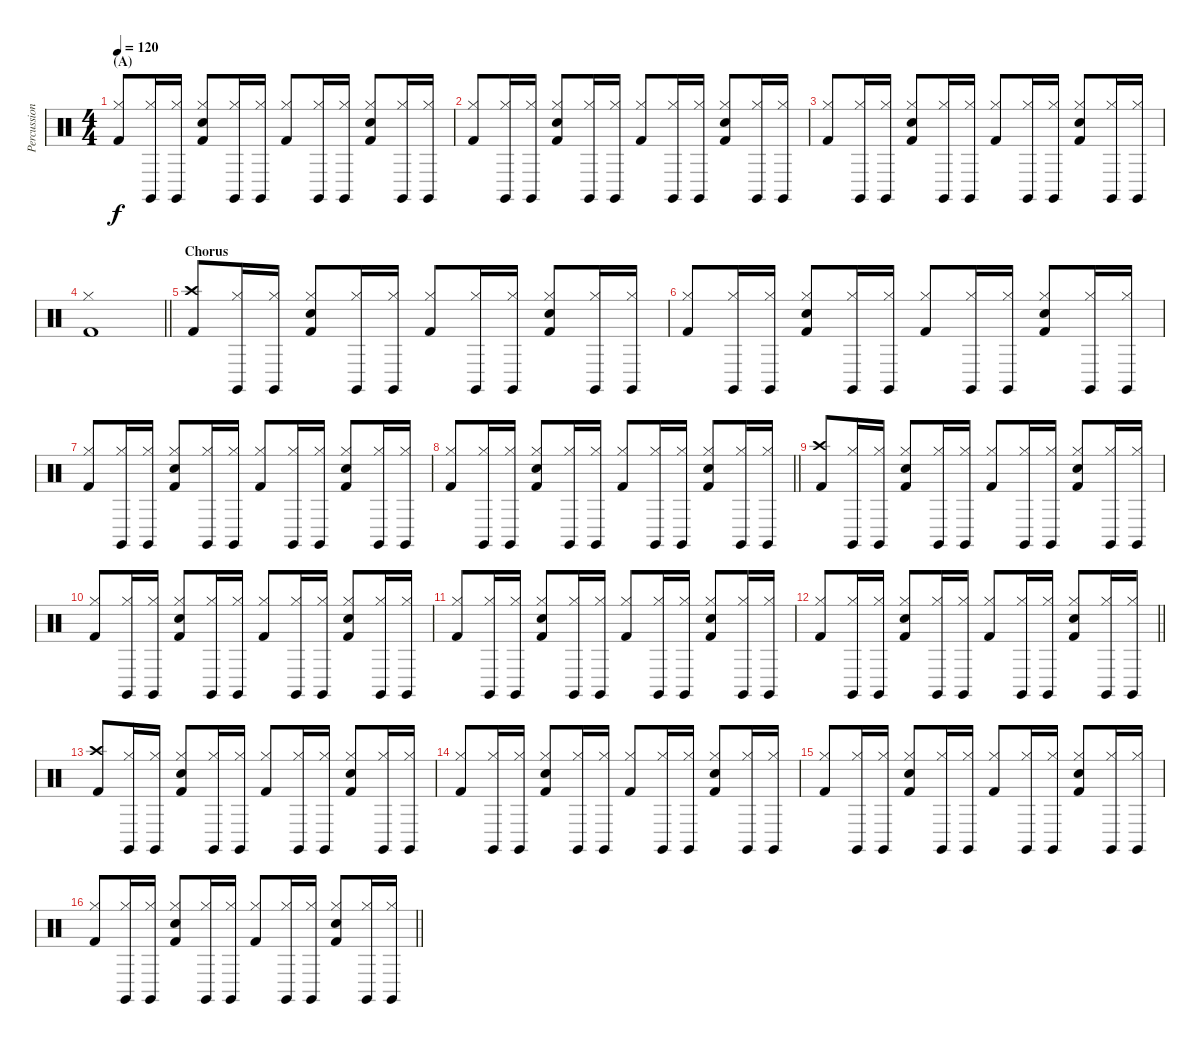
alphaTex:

\track ("Percussion" "Percussion") {instrument percussion}
\staff {score}
\articulation defaults
\ts (4 4)
\section ("" "(A)")
\tempo 120
\clef neutral
\ks c
("Hi-Hat (closed)" "Kick (hit) 2").8{dy f} ("Hi-Hat (closed)" "Claves (hit)").16 ("Hi-Hat (closed)" "Claves (hit)").16 ("Hi-Hat (closed)" "Electric Snare (hit)" "Kick (hit) 2").8 ("Hi-Hat (closed)" "Claves (hit)").16 ("Hi-Hat (closed)" "Claves (hit)").16 ("Hi-Hat (closed)" "Kick (hit) 2").8 ("Hi-Hat (closed)" "Claves (hit)").16 ("Hi-Hat (closed)" "Claves (hit)").16 ("Hi-Hat (closed)" "Electric Snare (hit)" "Kick (hit) 2").8 ("Hi-Hat (closed)" "Claves (hit)").16 ("Hi-Hat (closed)" "Claves (hit)").16 |
("Hi-Hat (closed)" "Kick (hit) 2").8 ("Hi-Hat (closed)" "Claves (hit)").16 ("Hi-Hat (closed)" "Claves (hit)").16 ("Hi-Hat (closed)" "Electric Snare (hit)" "Kick (hit) 2").8 ("Hi-Hat (closed)" "Claves (hit)").16 ("Hi-Hat (closed)" "Claves (hit)").16 ("Hi-Hat (closed)" "Kick (hit) 2").8 ("Hi-Hat (closed)" "Claves (hit)").16 ("Hi-Hat (closed)" "Claves (hit)").16 ("Hi-Hat (closed)" "Electric Snare (hit)" "Kick (hit) 2").8 ("Hi-Hat (closed)" "Claves (hit)").16 ("Hi-Hat (closed)" "Claves (hit)").16 |
("Hi-Hat (closed)" "Kick (hit) 2").8 ("Hi-Hat (closed)" "Claves (hit)").16 ("Hi-Hat (closed)" "Claves (hit)").16 ("Hi-Hat (closed)" "Electric Snare (hit)" "Kick (hit) 2").8 ("Hi-Hat (closed)" "Claves (hit)").16 ("Hi-Hat (closed)" "Claves (hit)").16 ("Hi-Hat (closed)" "Kick (hit) 2").8 ("Hi-Hat (closed)" "Claves (hit)").16 ("Hi-Hat (closed)" "Claves (hit)").16 ("Hi-Hat (closed)" "Electric Snare (hit)" "Kick (hit) 2").8 ("Hi-Hat (closed)" "Claves (hit)").16 ("Hi-Hat (closed)" "Claves (hit)").16 |
\barLineRight lightlight
("Hi-Hat (closed)" "Kick (hit) 2").1 |
\section ("" "Chorus")
("Crash high (hit)" "Kick (hit) 2").8 ("Hi-Hat (closed)" "Claves (hit)").16 ("Hi-Hat (closed)" "Claves (hit)").16 ("Hi-Hat (closed)" "Electric Snare (hit)" "Kick (hit) 2").8 ("Hi-Hat (closed)" "Claves (hit)").16 ("Hi-Hat (closed)" "Claves (hit)").16 ("Hi-Hat (closed)" "Kick (hit) 2").8 ("Hi-Hat (closed)" "Claves (hit)").16 ("Hi-Hat (closed)" "Claves (hit)").16 ("Hi-Hat (closed)" "Electric Snare (hit)" "Kick (hit) 2").8 ("Hi-Hat (closed)" "Claves (hit)").16 ("Hi-Hat (closed)" "Claves (hit)").16 |
("Hi-Hat (closed)" "Kick (hit) 2").8 ("Hi-Hat (closed)" "Claves (hit)").16 ("Hi-Hat (closed)" "Claves (hit)").16 ("Hi-Hat (closed)" "Electric Snare (hit)" "Kick (hit) 2").8 ("Hi-Hat (closed)" "Claves (hit)").16 ("Hi-Hat (closed)" "Claves (hit)").16 ("Hi-Hat (closed)" "Kick (hit) 2").8 ("Hi-Hat (closed)" "Claves (hit)").16 ("Hi-Hat (closed)" "Claves (hit)").16 ("Hi-Hat (closed)" "Electric Snare (hit)" "Kick (hit) 2").8 ("Hi-Hat (closed)" "Claves (hit)").16 ("Hi-Hat (closed)" "Claves (hit)").16 |
("Hi-Hat (closed)" "Kick (hit) 2").8 ("Hi-Hat (closed)" "Claves (hit)").16 ("Hi-Hat (closed)" "Claves (hit)").16 ("Hi-Hat (closed)" "Electric Snare (hit)" "Kick (hit) 2").8 ("Hi-Hat (closed)" "Claves (hit)").16 ("Hi-Hat (closed)" "Claves (hit)").16 ("Hi-Hat (closed)" "Kick (hit) 2").8 ("Hi-Hat (closed)" "Claves (hit)").16 ("Hi-Hat (closed)" "Claves (hit)").16 ("Hi-Hat (closed)" "Electric Snare (hit)" "Kick (hit) 2").8 ("Hi-Hat (closed)" "Claves (hit)").16 ("Hi-Hat (closed)" "Claves (hit)").16 |
\barLineRight lightlight
("Hi-Hat (closed)" "Kick (hit) 2").8 ("Hi-Hat (closed)" "Claves (hit)").16 ("Hi-Hat (closed)" "Claves (hit)").16 ("Hi-Hat (closed)" "Electric Snare (hit)" "Kick (hit) 2").8 ("Hi-Hat (closed)" "Claves (hit)").16 ("Hi-Hat (closed)" "Claves (hit)").16 ("Hi-Hat (closed)" "Kick (hit) 2").8 ("Hi-Hat (closed)" "Claves (hit)").16 ("Hi-Hat (closed)" "Claves (hit)").16 ("Hi-Hat (closed)" "Electric Snare (hit)" "Kick (hit) 2").8 ("Hi-Hat (closed)" "Claves (hit)").16 ("Hi-Hat (closed)" "Claves (hit)").16 |
("Crash high (hit)" "Kick (hit) 2").8 ("Hi-Hat (closed)" "Claves (hit)").16 ("Hi-Hat (closed)" "Claves (hit)").16 ("Hi-Hat (closed)" "Electric Snare (hit)" "Kick (hit) 2").8 ("Hi-Hat (closed)" "Claves (hit)").16 ("Hi-Hat (closed)" "Claves (hit)").16 ("Hi-Hat (closed)" "Kick (hit) 2").8 ("Hi-Hat (closed)" "Claves (hit)").16 ("Hi-Hat (closed)" "Claves (hit)").16 ("Hi-Hat (closed)" "Electric Snare (hit)" "Kick (hit) 2").8 ("Hi-Hat (closed)" "Claves (hit)").16 ("Hi-Hat (closed)" "Claves (hit)").16 |
("Hi-Hat (closed)" "Kick (hit) 2").8 ("Hi-Hat (closed)" "Claves (hit)").16 ("Hi-Hat (closed)" "Claves (hit)").16 ("Hi-Hat (closed)" "Electric Snare (hit)" "Kick (hit) 2").8 ("Hi-Hat (closed)" "Claves (hit)").16 ("Hi-Hat (closed)" "Claves (hit)").16 ("Hi-Hat (closed)" "Kick (hit) 2").8 ("Hi-Hat (closed)" "Claves (hit)").16 ("Hi-Hat (closed)" "Claves (hit)").16 ("Hi-Hat (closed)" "Electric Snare (hit)" "Kick (hit) 2").8 ("Hi-Hat (closed)" "Claves (hit)").16 ("Hi-Hat (closed)" "Claves (hit)").16 |
("Hi-Hat (closed)" "Kick (hit) 2").8 ("Hi-Hat (closed)" "Claves (hit)").16 ("Hi-Hat (closed)" "Claves (hit)").16 ("Hi-Hat (closed)" "Electric Snare (hit)" "Kick (hit) 2").8 ("Hi-Hat (closed)" "Claves (hit)").16 ("Hi-Hat (closed)" "Claves (hit)").16 ("Hi-Hat (closed)" "Kick (hit) 2").8 ("Hi-Hat (closed)" "Claves (hit)").16 ("Hi-Hat (closed)" "Claves (hit)").16 ("Hi-Hat (closed)" "Electric Snare (hit)" "Kick (hit) 2").8 ("Hi-Hat (closed)" "Claves (hit)").16 ("Hi-Hat (closed)" "Claves (hit)").16 |
\barLineRight lightlight
("Hi-Hat (closed)" "Kick (hit) 2").8 ("Hi-Hat (closed)" "Claves (hit)").16 ("Hi-Hat (closed)" "Claves (hit)").16 ("Hi-Hat (closed)" "Electric Snare (hit)" "Kick (hit) 2").8 ("Hi-Hat (closed)" "Claves (hit)").16 ("Hi-Hat (closed)" "Claves (hit)").16 ("Hi-Hat (closed)" "Kick (hit) 2").8 ("Hi-Hat (closed)" "Claves (hit)").16 ("Hi-Hat (closed)" "Claves (hit)").16 ("Hi-Hat (closed)" "Electric Snare (hit)" "Kick (hit) 2").8 ("Hi-Hat (closed)" "Claves (hit)").16 ("Hi-Hat (closed)" "Claves (hit)").16 |
("Crash high (hit)" "Kick (hit) 2").8 ("Hi-Hat (closed)" "Claves (hit)").16 ("Hi-Hat (closed)" "Claves (hit)").16 ("Hi-Hat (closed)" "Electric Snare (hit)" "Kick (hit) 2").8 ("Hi-Hat (closed)" "Claves (hit)").16 ("Hi-Hat (closed)" "Claves (hit)").16 ("Hi-Hat (closed)" "Kick (hit) 2").8 ("Hi-Hat (closed)" "Claves (hit)").16 ("Hi-Hat (closed)" "Claves (hit)").16 ("Hi-Hat (closed)" "Electric Snare (hit)" "Kick (hit) 2").8 ("Hi-Hat (closed)" "Claves (hit)").16 ("Hi-Hat (closed)" "Claves (hit)").16 |
("Hi-Hat (closed)" "Kick (hit) 2").8 ("Hi-Hat (closed)" "Claves (hit)").16 ("Hi-Hat (closed)" "Claves (hit)").16 ("Hi-Hat (closed)" "Electric Snare (hit)" "Kick (hit) 2").8 ("Hi-Hat (closed)" "Claves (hit)").16 ("Hi-Hat (closed)" "Claves (hit)").16 ("Hi-Hat (closed)" "Kick (hit) 2").8 ("Hi-Hat (closed)" "Claves (hit)").16 ("Hi-Hat (closed)" "Claves (hit)").16 ("Hi-Hat (closed)" "Electric Snare (hit)" "Kick (hit) 2").8 ("Hi-Hat (closed)" "Claves (hit)").16 ("Hi-Hat (closed)" "Claves (hit)").16 |
("Hi-Hat (closed)" "Kick (hit) 2").8 ("Hi-Hat (closed)" "Claves (hit)").16 ("Hi-Hat (closed)" "Claves (hit)").16 ("Hi-Hat (closed)" "Electric Snare (hit)" "Kick (hit) 2").8 ("Hi-Hat (closed)" "Claves (hit)").16 ("Hi-Hat (closed)" "Claves (hit)").16 ("Hi-Hat (closed)" "Kick (hit) 2").8 ("Hi-Hat (closed)" "Claves (hit)").16 ("Hi-Hat (closed)" "Claves (hit)").16 ("Hi-Hat (closed)" "Electric Snare (hit)" "Kick (hit) 2").8 ("Hi-Hat (closed)" "Claves (hit)").16 ("Hi-Hat (closed)" "Claves (hit)").16 |
\barLineRight lightlight
("Hi-Hat (closed)" "Kick (hit) 2").8 ("Hi-Hat (closed)" "Claves (hit)").16 ("Hi-Hat (closed)" "Claves (hit)").16 ("Hi-Hat (closed)" "Electric Snare (hit)" "Kick (hit) 2").8 ("Hi-Hat (closed)" "Claves (hit)").16 ("Hi-Hat (closed)" "Claves (hit)").16 ("Hi-Hat (closed)" "Kick (hit) 2").8 ("Hi-Hat (closed)" "Claves (hit)").16 ("Hi-Hat (closed)" "Claves (hit)").16 ("Hi-Hat (closed)" "Electric Snare (hit)" "Kick (hit) 2").8 ("Hi-Hat (closed)" "Claves (hit)").16 ("Hi-Hat (closed)" "Claves (hit)").16
